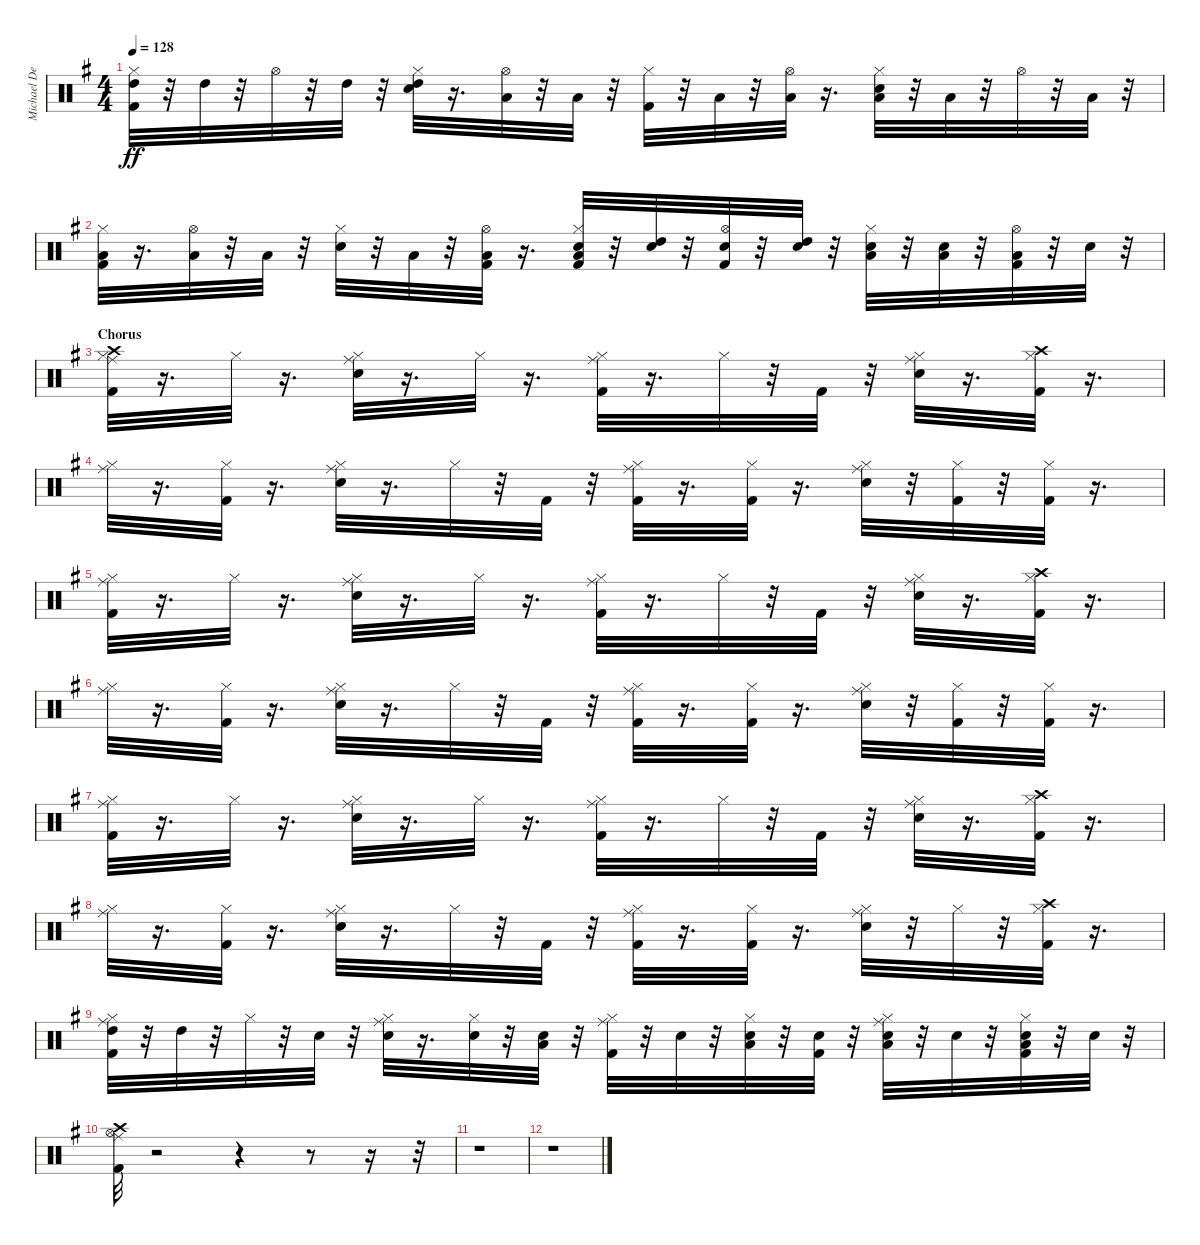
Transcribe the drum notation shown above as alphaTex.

\track ("Michael DeRosier" "Michael De") {instrument percussion}
\staff {score}
\articulation defaults
\ts (4 4)
\tempo 128
\clef neutral
\ks g
("Kick (hit) 2" "Hi-Hat (closed)" "High Tom (hit)").32{dy ff} r.32 "High Tom (hit)".32 r.32 "Hi-Hat (open)".32 r.32 "High Tom (hit)".32 r.32 ("Snare (hit) 2" "Hi-Hat (closed)" "High Tom (hit)").32 r.16{d} ("Hi-Hat (open)" "Low Tom (hit)").32 r.32 "Low Tom (hit)".32 r.32 ("Kick (hit) 2" "Hi-Hat (closed)").32 r.32 "Low Tom (hit)".32 r.32 ("Hi-Hat (open)" "Low Tom (hit)").32 r.16{d} ("Snare (hit) 2" "Hi-Hat (closed)" "Low Tom (hit)").32 r.32 "Low Tom (hit)".32 r.32 "Hi-Hat (open)".32 r.32 "Low Tom (hit)".32 r.32 |
("Kick (hit) 2" "Hi-Hat (closed)" "Low Floor Tom (hit)").32 r.16{d} ("Hi-Hat (open)" "Low Floor Tom (hit)").32 r.32 "Low Floor Tom (hit)".32 r.32 ("Snare (hit) 2" "Hi-Hat (closed)").32 r.32 "Low Floor Tom (hit)".32 r.32 ("Kick (hit) 2" "Hi-Hat (open)" "Low Floor Tom (hit)").32 r.16{d} ("Kick (hit) 2" "Snare (hit) 2" "Hi-Hat (closed)" "Low Floor Tom (hit)").32 r.32 ("Snare (hit) 2" "High Tom (hit)").32 r.32 ("Kick (hit) 2" "Snare (hit) 2" "Hi-Hat (open)").32 r.32 ("Snare (hit) 2" "High Tom (hit)").32 r.32 ("Snare (hit) 2" "Hi-Hat (closed)" "Low Tom (hit)").32 r.32 ("Snare (hit) 2" "Low Tom (hit)").32 r.32 ("Kick (hit) 2" "Hi-Hat (open)" "Low Floor Tom (hit)").32 r.32 "Snare (hit) 2".32 r.32 |
\section ("" "Chorus")
("Kick (hit) 2" "Hi-Hat (closed)" "Crash high (hit)" "Ride (middle)").32 r.16{d} "Hi-Hat (closed)".32 r.16{d} ("Snare (hit) 2" "Hi-Hat (closed)" "Ride (middle)").32 r.16{d} "Hi-Hat (closed)".32 r.16{d} ("Kick (hit) 2" "Hi-Hat (closed)" "Ride (middle)").32 r.16{d} "Hi-Hat (closed)".32 r.32 "Kick (hit) 2".32 r.32 ("Snare (hit) 2" "Hi-Hat (closed)" "Ride (middle)").32 r.16{d} ("Kick (hit) 2" "Hi-Hat (closed)" "Crash high (hit)").32 r.16{d} |
("Hi-Hat (closed)" "Ride (middle)").32 r.16{d} ("Kick (hit) 2" "Hi-Hat (closed)").32 r.16{d} ("Snare (hit) 2" "Hi-Hat (closed)" "Ride (middle)").32 r.16{d} "Hi-Hat (closed)".32 r.32 "Kick (hit) 2".32 r.32 ("Kick (hit) 2" "Hi-Hat (closed)" "Ride (middle)").32 r.16{d} ("Kick (hit) 2" "Hi-Hat (closed)").32 r.16{d} ("Snare (hit) 2" "Hi-Hat (closed)" "Ride (middle)").32 r.32 ("Kick (hit) 2" "Hi-Hat (closed)").32 r.32 ("Kick (hit) 2" "Hi-Hat (closed)").32 r.16{d} |
("Kick (hit) 2" "Hi-Hat (closed)" "Ride (middle)").32 r.16{d} "Hi-Hat (closed)".32 r.16{d} ("Snare (hit) 2" "Hi-Hat (closed)" "Ride (middle)").32 r.16{d} "Hi-Hat (closed)".32 r.16{d} ("Kick (hit) 2" "Hi-Hat (closed)" "Ride (middle)").32 r.16{d} "Hi-Hat (closed)".32 r.32 "Kick (hit) 2".32 r.32 ("Snare (hit) 2" "Hi-Hat (closed)" "Ride (middle)").32 r.16{d} ("Kick (hit) 2" "Hi-Hat (closed)" "Crash high (hit)").32 r.16{d} |
("Hi-Hat (closed)" "Ride (middle)").32 r.16{d} ("Kick (hit) 2" "Hi-Hat (closed)").32 r.16{d} ("Snare (hit) 2" "Hi-Hat (closed)" "Ride (middle)").32 r.16{d} "Hi-Hat (closed)".32 r.32 "Kick (hit) 2".32 r.32 ("Kick (hit) 2" "Hi-Hat (closed)" "Ride (middle)").32 r.16{d} ("Kick (hit) 2" "Hi-Hat (closed)").32 r.16{d} ("Snare (hit) 2" "Hi-Hat (closed)" "Ride (middle)").32 r.32 ("Kick (hit) 2" "Hi-Hat (closed)").32 r.32 ("Kick (hit) 2" "Hi-Hat (closed)").32 r.16{d} |
("Kick (hit) 2" "Hi-Hat (closed)" "Ride (middle)").32 r.16{d} "Hi-Hat (closed)".32 r.16{d} ("Snare (hit) 2" "Hi-Hat (closed)" "Ride (middle)").32 r.16{d} "Hi-Hat (closed)".32 r.16{d} ("Kick (hit) 2" "Hi-Hat (closed)" "Ride (middle)").32 r.16{d} "Hi-Hat (closed)".32 r.32 "Kick (hit) 2".32 r.32 ("Snare (hit) 2" "Hi-Hat (closed)" "Ride (middle)").32 r.16{d} ("Kick (hit) 2" "Hi-Hat (closed)" "Crash high (hit)").32 r.16{d} |
("Hi-Hat (closed)" "Ride (middle)").32 r.16{d} ("Kick (hit) 2" "Hi-Hat (closed)").32 r.16{d} ("Snare (hit) 2" "Hi-Hat (closed)" "Ride (middle)").32 r.16{d} "Hi-Hat (closed)".32 r.32 "Kick (hit) 2".32 r.32 ("Kick (hit) 2" "Hi-Hat (closed)" "Ride (middle)").32 r.16{d} ("Kick (hit) 2" "Hi-Hat (closed)").32 r.16{d} ("Snare (hit) 2" "Hi-Hat (closed)" "Ride (middle)").32 r.32 "Hi-Hat (closed)".32 r.32 ("Kick (hit) 2" "Hi-Hat (closed)" "Crash high (hit)").32 r.16{d} |
("Kick (hit) 2" "Hi-Hat (closed)" "Ride (middle)" "High Tom (hit)").32 r.32 "High Tom (hit)".32 r.32 "Hi-Hat (closed)".32 r.32 "Snare (hit) 2".32 r.32 ("Snare (hit) 2" "Hi-Hat (closed)" "Ride (middle)").32 r.16{d} ("Snare (hit) 2" "Hi-Hat (closed)").32 r.32 ("Snare (hit) 2" "Low Tom (hit)").32 r.32 ("Kick (hit) 2" "Hi-Hat (closed)" "Ride (middle)").32 r.32 "Snare (hit) 2".32 r.32 ("Snare (hit) 2" "Hi-Hat (closed)" "Low Floor Tom (hit)").32 r.32 ("Kick (hit) 2" "Snare (hit) 2").32 r.32 ("Snare (hit) 2" "Hi-Hat (closed)" "Ride (middle)" "Low Floor Tom (hit)").32 r.32 "Snare (hit) 2".32 r.32 ("Kick (hit) 2" "Snare (hit) 2" "Hi-Hat (closed)" "Low Tom (hit)").32 r.32 "Snare (hit) 2".32 r.32 |
("Kick (hit) 2" "Crash high (hit)" "Hi-Hat (open)" "Ride (middle)").32 r.2 r.4 r.8 r.16 r.32 |
r.1 |
r.1
